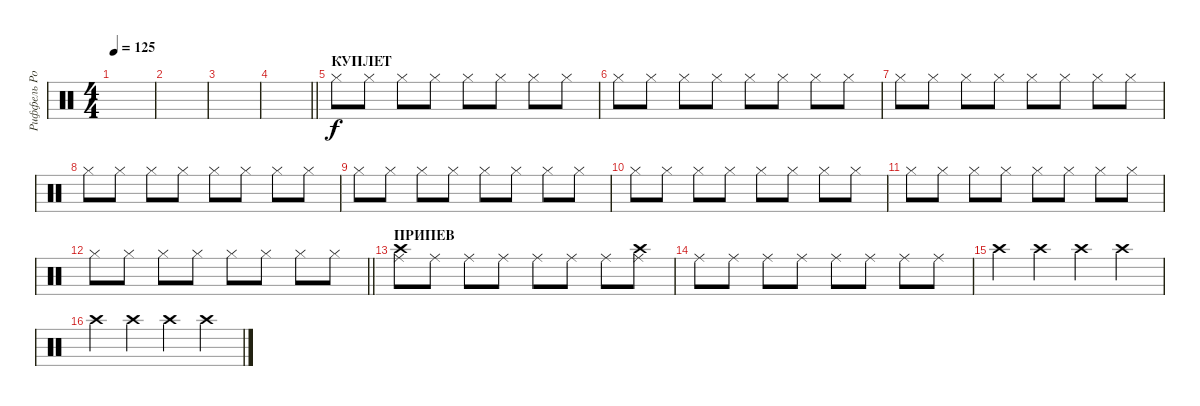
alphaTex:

\track ("Риффель Роман(хэты)" "Риффель Ро") {instrument percussion}
\staff {score}
\articulation defaults
\ts (4 4)
\tempo 125
\clef neutral
\ks c
|
|
|
\barLineRight lightlight
|
\section ("" "КУПЛЕТ")
"Hi-Hat (closed)".8 "Hi-Hat (closed)".8 "Hi-Hat (closed)".8 "Hi-Hat (closed)".8 "Hi-Hat (closed)".8 "Hi-Hat (closed)".8 "Hi-Hat (closed)".8 "Hi-Hat (closed)".8 |
"Hi-Hat (closed)".8 "Hi-Hat (closed)".8 "Hi-Hat (closed)".8 "Hi-Hat (closed)".8 "Hi-Hat (closed)".8 "Hi-Hat (closed)".8 "Hi-Hat (closed)".8 "Hi-Hat (closed)".8 |
"Hi-Hat (closed)".8 "Hi-Hat (closed)".8 "Hi-Hat (closed)".8 "Hi-Hat (closed)".8 "Hi-Hat (closed)".8 "Hi-Hat (closed)".8 "Hi-Hat (closed)".8 "Hi-Hat (closed)".8 |
"Hi-Hat (closed)".8 "Hi-Hat (closed)".8 "Hi-Hat (closed)".8 "Hi-Hat (closed)".8 "Hi-Hat (closed)".8 "Hi-Hat (closed)".8 "Hi-Hat (closed)".8 "Hi-Hat (closed)".8 |
"Hi-Hat (closed)".8 "Hi-Hat (closed)".8 "Hi-Hat (closed)".8 "Hi-Hat (closed)".8 "Hi-Hat (closed)".8 "Hi-Hat (closed)".8 "Hi-Hat (closed)".8 "Hi-Hat (closed)".8 |
"Hi-Hat (closed)".8 "Hi-Hat (closed)".8 "Hi-Hat (closed)".8 "Hi-Hat (closed)".8 "Hi-Hat (closed)".8 "Hi-Hat (closed)".8 "Hi-Hat (closed)".8 "Hi-Hat (closed)".8 |
"Hi-Hat (closed)".8 "Hi-Hat (closed)".8 "Hi-Hat (closed)".8 "Hi-Hat (closed)".8 "Hi-Hat (closed)".8 "Hi-Hat (closed)".8 "Hi-Hat (closed)".8 "Hi-Hat (closed)".8 |
\barLineRight lightlight "Hi-Hat (closed)".8 "Hi-Hat (closed)".8 "Hi-Hat (closed)".8 "Hi-Hat (closed)".8 "Hi-Hat (closed)".8 "Hi-Hat (closed)".8 "Hi-Hat (closed)".8 "Hi-Hat (closed)".8
|
\section ("" "ПРИПЕВ")
("Ride (middle)" "Crash high (hit)").8 "Ride (middle)".8 "Ride (middle)".8 "Ride (middle)".8 "Ride (middle)".8 "Ride (middle)".8 "Ride (middle)".8 ("Ride (middle)" "Crash high (hit)").8 |
"Ride (middle)".8 "Ride (middle)".8 "Ride (middle)".8 "Ride (middle)".8 "Ride (middle)".8 "Ride (middle)".8 "Ride (middle)".8 "Ride (middle)".8 |
"Crash high (hit)".4 "Crash high (hit)".4 "Crash high (hit)".4 "Crash high (hit)".4 |
"Crash high (hit)".4 "Crash high (hit)".4 "Crash high (hit)".4 "Crash high (hit)".4
